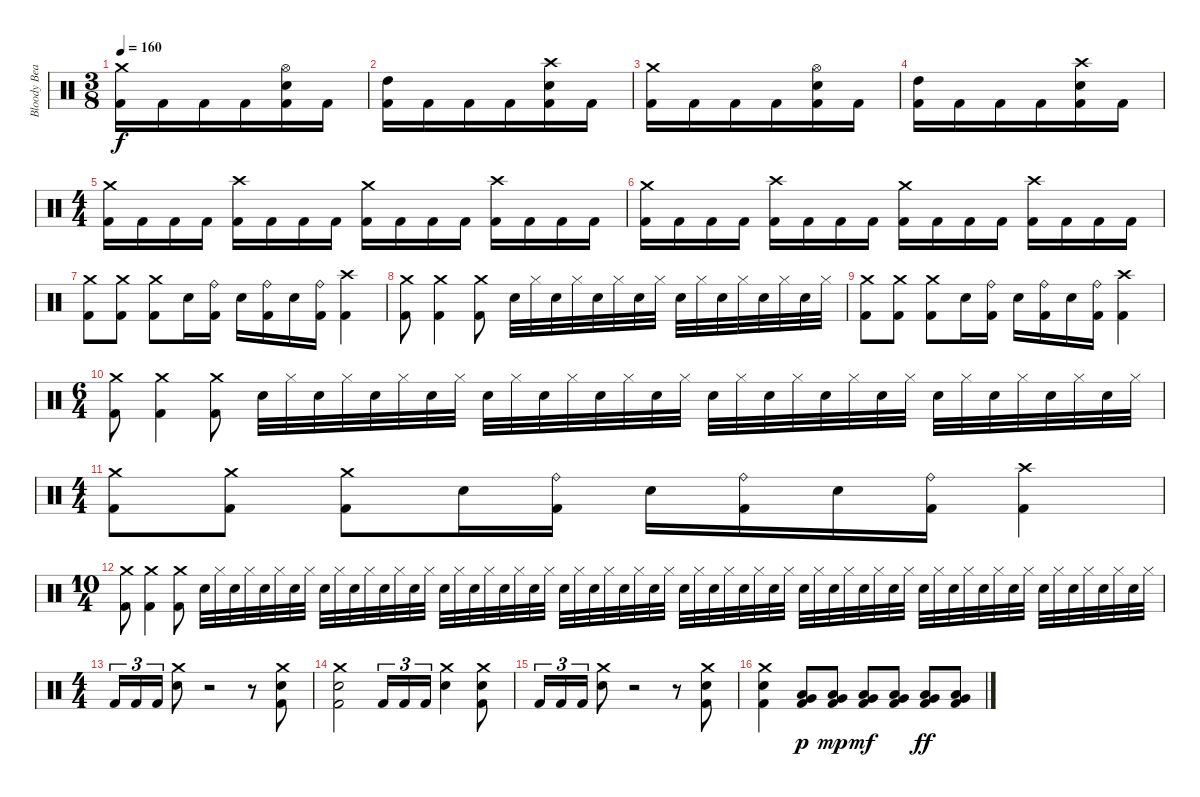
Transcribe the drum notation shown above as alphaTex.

\track ("Bloody Beater" "Bloody Bea") {instrument percussion}
\staff {score}
\articulation defaults
\ts (3 8)
\tempo 160
\clef neutral
\ks c
("Crash medium (hit)" "Kick (hit) 2").16{dy f} "Kick (hit) 2".16 "Kick (hit) 2".16 "Kick (hit) 2".16 ("Hi-Hat (open)" "Snare (hit) 2" "Kick (hit) 2").16 "Kick (hit) 2".16 |
("High Tom (hit)" "Kick (hit) 2").16 "Kick (hit) 2".16 "Kick (hit) 2".16 "Kick (hit) 2".16 ("Crash high (hit)" "Snare (hit) 2" "Kick (hit) 2").16 "Kick (hit) 2".16 |
("Crash medium (hit)" "Kick (hit) 2").16 "Kick (hit) 2".16 "Kick (hit) 2".16 "Kick (hit) 2".16 ("Hi-Hat (open)" "Snare (hit) 2" "Kick (hit) 2").16 "Kick (hit) 2".16 |
("High Tom (hit)" "Kick (hit) 2").16 "Kick (hit) 2".16 "Kick (hit) 2".16 "Kick (hit) 2".16 ("Crash high (hit)" "Snare (hit) 2" "Kick (hit) 2").16 "Kick (hit) 2".16 |
\ts (4 4)
("Crash medium (hit)" "Kick (hit) 2").16 "Kick (hit) 2".16 "Kick (hit) 2".16 "Kick (hit) 2".16 ("Crash high (hit)" "Kick (hit) 2").16 "Kick (hit) 2".16 "Kick (hit) 2".16 "Kick (hit) 2".16 ("Crash medium (hit)" "Kick (hit) 2").16 "Kick (hit) 2".16 "Kick (hit) 2".16 "Kick (hit) 2".16 ("Crash high (hit)" "Kick (hit) 2").16 "Kick (hit) 2".16 "Kick (hit) 2".16 "Kick (hit) 2".16 |
("Crash medium (hit)" "Kick (hit) 2").16 "Kick (hit) 2".16 "Kick (hit) 2".16 "Kick (hit) 2".16 ("Crash high (hit)" "Kick (hit) 2").16 "Kick (hit) 2".16 "Kick (hit) 2".16 "Kick (hit) 2".16 ("Crash medium (hit)" "Kick (hit) 2").16 "Kick (hit) 2".16 "Kick (hit) 2".16 "Kick (hit) 2".16 ("Crash high (hit)" "Kick (hit) 2").16 "Kick (hit) 2".16 "Kick (hit) 2".16 "Kick (hit) 2".16 |
("Crash medium (hit)" "Kick (hit) 2").8 ("Crash medium (hit)" "Kick (hit) 2").8 ("Crash medium (hit)" "Kick (hit) 2").8 "Snare (hit) 2".16 ("Ride (bell)" "Kick (hit) 2").16 "Snare (hit) 2".16 ("Ride (bell)" "Kick (hit) 2").16 "Snare (hit) 2".16 ("Ride (bell)" "Kick (hit) 2").16 ("Crash high (hit)" "Kick (hit) 2").4 |
("Crash medium (hit)" "Kick (hit) 2").8 ("Crash medium (hit)" "Kick (hit) 2").4 ("Crash medium (hit)" "Kick (hit) 2").8 "Snare (hit) 2".32 "Hi-Hat (closed)".32 "Snare (hit) 2".32 "Hi-Hat (closed)".32 "Snare (hit) 2".32 "Hi-Hat (closed)".32 "Snare (hit) 2".32 "Hi-Hat (closed)".32 "Snare (hit) 2".32 "Hi-Hat (closed)".32 "Snare (hit) 2".32 "Hi-Hat (closed)".32 "Snare (hit) 2".32 "Hi-Hat (closed)".32 "Snare (hit) 2".32 "Hi-Hat (closed)".32 |
("Crash medium (hit)" "Kick (hit) 2").8 ("Crash medium (hit)" "Kick (hit) 2").8 ("Crash medium (hit)" "Kick (hit) 2").8 "Snare (hit) 2".16 ("Ride (bell)" "Kick (hit) 2").16 "Snare (hit) 2".16 ("Ride (bell)" "Kick (hit) 2").16 "Snare (hit) 2".16 ("Ride (bell)" "Kick (hit) 2").16 ("Crash high (hit)" "Kick (hit) 2").4 |
\ts (6 4)
("Crash medium (hit)" "Kick (hit) 2").8 ("Crash medium (hit)" "Kick (hit) 2").4 ("Crash medium (hit)" "Kick (hit) 2").8 "Snare (hit) 2".32 "Hi-Hat (closed)".32 "Snare (hit) 2".32 "Hi-Hat (closed)".32 "Snare (hit) 2".32 "Hi-Hat (closed)".32 "Snare (hit) 2".32 "Hi-Hat (closed)".32 "Snare (hit) 2".32 "Hi-Hat (closed)".32 "Snare (hit) 2".32 "Hi-Hat (closed)".32 "Snare (hit) 2".32 "Hi-Hat (closed)".32 "Snare (hit) 2".32 "Hi-Hat (closed)".32 "Snare (hit) 2".32 "Hi-Hat (closed)".32 "Snare (hit) 2".32 "Hi-Hat (closed)".32 "Snare (hit) 2".32 "Hi-Hat (closed)".32 "Snare (hit) 2".32 "Hi-Hat (closed)".32 "Snare (hit) 2".32 "Hi-Hat (closed)".32 "Snare (hit) 2".32 "Hi-Hat (closed)".32 "Snare (hit) 2".32 "Hi-Hat (closed)".32 "Snare (hit) 2".32 "Hi-Hat (closed)".32 |
\ts (4 4)
("Crash medium (hit)" "Kick (hit) 2").8 ("Crash medium (hit)" "Kick (hit) 2").8 ("Crash medium (hit)" "Kick (hit) 2").8 "Snare (hit) 2".16 ("Ride (bell)" "Kick (hit) 2").16 "Snare (hit) 2".16 ("Ride (bell)" "Kick (hit) 2").16 "Snare (hit) 2".16 ("Ride (bell)" "Kick (hit) 2").16 ("Crash high (hit)" "Kick (hit) 2").4 |
\ts (10 4)
("Crash medium (hit)" "Kick (hit) 2").8 ("Crash medium (hit)" "Kick (hit) 2").4 ("Crash medium (hit)" "Kick (hit) 2").8 "Snare (hit) 2".32 "Hi-Hat (closed)".32 "Snare (hit) 2".32 "Hi-Hat (closed)".32 "Snare (hit) 2".32 "Hi-Hat (closed)".32 "Snare (hit) 2".32 "Hi-Hat (closed)".32 "Snare (hit) 2".32 "Hi-Hat (closed)".32 "Snare (hit) 2".32 "Hi-Hat (closed)".32 "Snare (hit) 2".32 "Hi-Hat (closed)".32 "Snare (hit) 2".32 "Hi-Hat (closed)".32 "Snare (hit) 2".32 "Hi-Hat (closed)".32 "Snare (hit) 2".32 "Hi-Hat (closed)".32 "Snare (hit) 2".32 "Hi-Hat (closed)".32 "Snare (hit) 2".32 "Hi-Hat (closed)".32 "Snare (hit) 2".32 "Hi-Hat (closed)".32 "Snare (hit) 2".32 "Hi-Hat (closed)".32 "Snare (hit) 2".32 "Hi-Hat (closed)".32 "Snare (hit) 2".32 "Hi-Hat (closed)".32 "Snare (hit) 2".32 "Hi-Hat (closed)".32 "Snare (hit) 2".32 "Hi-Hat (closed)".32 "Snare (hit) 2".32 "Hi-Hat (closed)".32 "Snare (hit) 2".32 "Hi-Hat (closed)".32 "Snare (hit) 2".32 "Hi-Hat (closed)".32 "Snare (hit) 2".32 "Hi-Hat (closed)".32 "Snare (hit) 2".32 "Hi-Hat (closed)".32 "Snare (hit) 2".32 "Hi-Hat (closed)".32 "Snare (hit) 2".32 "Hi-Hat (closed)".32 "Snare (hit) 2".32 "Hi-Hat (closed)".32 "Snare (hit) 2".32 "Hi-Hat (closed)".32 "Snare (hit) 2".32 "Hi-Hat (closed)".32 "Snare (hit) 2".32 "Hi-Hat (closed)".32 "Snare (hit) 2".32 "Hi-Hat (closed)".32 "Snare (hit) 2".32 "Hi-Hat (closed)".32 "Snare (hit) 2".32 "Hi-Hat (closed)".32 |
\ts (4 4)
"Kick (hit) 2".16{tu (3 2)} "Kick (hit) 2".16{tu (3 2)} "Kick (hit) 2".16{tu (3 2)} ("Crash medium (hit)" "Snare (hit) 2").8 r.2 r.8 ("Crash medium (hit)" "Snare (hit) 2" "Kick (hit) 2").8 |
("Crash medium (hit)" "Snare (hit) 2" "Kick (hit) 2").2 "Kick (hit) 2".16{tu (3 2)} "Kick (hit) 2".16{tu (3 2)} "Kick (hit) 2".16{tu (3 2)} ("Crash medium (hit)" "Snare (hit) 2").4 ("Crash medium (hit)" "Snare (hit) 2" "Kick (hit) 2").8 |
"Kick (hit) 2".16{tu (3 2)} "Kick (hit) 2".16{tu (3 2)} "Kick (hit) 2".16{tu (3 2)} ("Crash medium (hit)" "Snare (hit) 2").8 r.2 r.8 ("Crash medium (hit)" "Snare (hit) 2" "Kick (hit) 2").8 |
("Crash medium (hit)" "Snare (hit) 2" "Kick (hit) 2").4 ("Very Low Tom (hit)" "Low Tom (hit)" "Kick (hit) 2").8{dy p} ("Very Low Tom (hit)" "Low Tom (hit)" "Kick (hit) 2").8{dy mp} ("Very Low Tom (hit)" "Low Tom (hit)" "Kick (hit) 2").8{dy mf} ("Very Low Tom (hit)" "Low Tom (hit)" "Kick (hit) 2").8 ("Very Low Tom (hit)" "Low Tom (hit)" "Kick (hit) 2").8{dy ff} ("Very Low Tom (hit)" "Low Tom (hit)" "Kick (hit) 2").8
